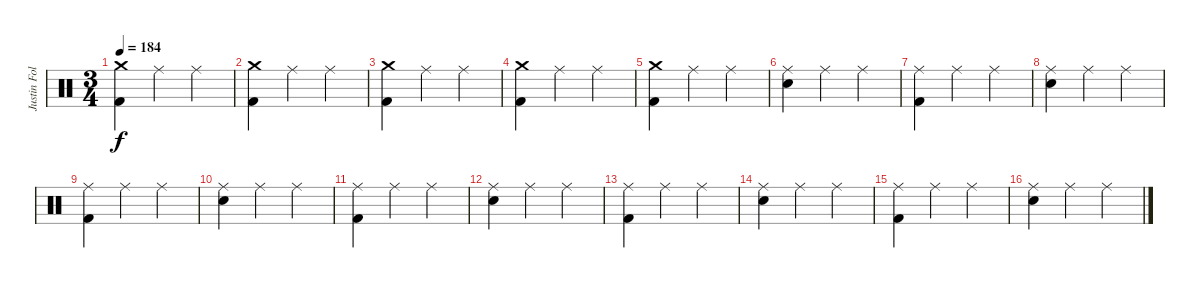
\track ("Justin Foley" "Justin Fol") {instrument percussion}
\staff {score}
\articulation defaults
\ts (3 4)
\tempo 184
\clef neutral
\ks c
("Crash medium (hit)" "Kick (hit) 2").4{dy f} "Ride (middle)".4 "Ride (middle)".4 |
("Crash medium (hit)" "Kick (hit) 2").4 "Ride (middle)".4 "Ride (middle)".4 |
("Crash medium (hit)" "Kick (hit) 2").4 "Ride (middle)".4 "Ride (middle)".4 |
("Crash medium (hit)" "Kick (hit) 2").4 "Ride (middle)".4 "Ride (middle)".4 |
("Crash medium (hit)" "Kick (hit) 2").4 "Ride (middle)".4 "Ride (middle)".4 |
("Ride (middle)" "Electric Snare (hit)").4 "Ride (middle)".4 "Ride (middle)".4 |
("Ride (middle)" "Kick (hit) 2").4 "Ride (middle)".4 "Ride (middle)".4 |
("Ride (middle)" "Electric Snare (hit)").4 "Ride (middle)".4 "Ride (middle)".4 |
("Ride (middle)" "Kick (hit) 2").4 "Ride (middle)".4 "Ride (middle)".4 |
("Ride (middle)" "Electric Snare (hit)").4 "Ride (middle)".4 "Ride (middle)".4 |
("Ride (middle)" "Kick (hit) 2").4 "Ride (middle)".4 "Ride (middle)".4 |
("Ride (middle)" "Electric Snare (hit)").4 "Ride (middle)".4 "Ride (middle)".4 |
("Ride (middle)" "Kick (hit) 2").4 "Ride (middle)".4 "Ride (middle)".4 |
("Ride (middle)" "Electric Snare (hit)").4 "Ride (middle)".4 "Ride (middle)".4 |
("Ride (middle)" "Kick (hit) 2").4 "Ride (middle)".4 "Ride (middle)".4 |
("Ride (middle)" "Electric Snare (hit)").4 "Ride (middle)".4 "Ride (middle)".4
